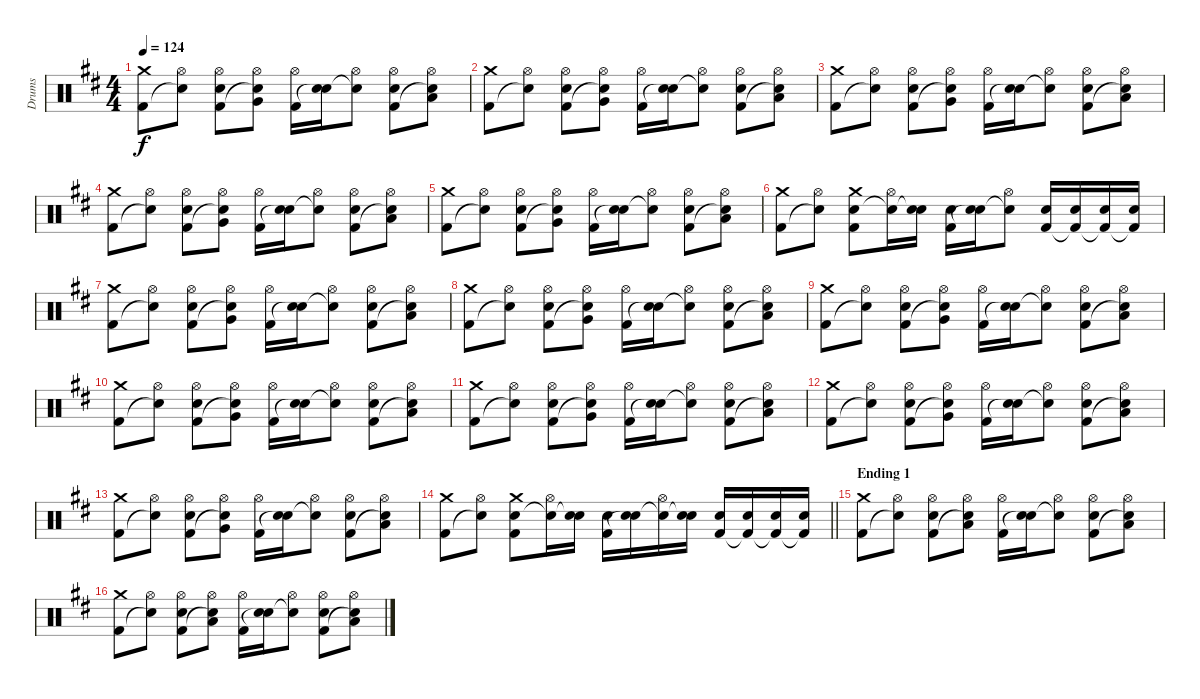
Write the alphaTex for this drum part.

\track ("Drums" "Drums") {instrument percussion}
\staff {score}
\articulation defaults
\ts (4 4)
\tempo 124
\clef neutral
\ks d
("Crash medium (hit)" "Kick (hit) 2").8{dy f} ("Hi-Hat (open)" "Snare (hit)"{t}).8 ("Hi-Hat (open)" "Electric Snare (hit)" "Kick (hit) 2").8 ("Hi-Hat (open)" "Very Low Tom (hit)" "Snare (hit)"{t}).8 ("Hi-Hat (open)" "Kick (hit) 2").16 ("Electric Snare (hit)" "Snare (hit)"{t}).16 ("Hi-Hat (open)" "Snare (hit)"{t}).8 ("Hi-Hat (open)" "Electric Snare (hit)" "Kick (hit) 2").8 ("Hi-Hat (open)" "Low Floor Tom (hit)" "Snare (hit)"{t}).8 |
("Crash medium (hit)" "Kick (hit) 2").8 ("Hi-Hat (open)" "Snare (hit)"{t}).8 ("Hi-Hat (open)" "Electric Snare (hit)" "Kick (hit) 2").8 ("Hi-Hat (open)" "Very Low Tom (hit)" "Snare (hit)"{t}).8 ("Hi-Hat (open)" "Kick (hit) 2").16 ("Electric Snare (hit)" "Snare (hit)"{t}).16 ("Hi-Hat (open)" "Snare (hit)"{t}).8 ("Hi-Hat (open)" "Electric Snare (hit)" "Kick (hit) 2").8 ("Hi-Hat (open)" "Low Floor Tom (hit)" "Snare (hit)"{t}).8 |
("Crash medium (hit)" "Kick (hit) 2").8 ("Hi-Hat (open)" "Snare (hit)"{t}).8 ("Hi-Hat (open)" "Electric Snare (hit)" "Kick (hit) 2").8 ("Hi-Hat (open)" "Very Low Tom (hit)" "Snare (hit)"{t}).8 ("Hi-Hat (open)" "Kick (hit) 2").16 ("Electric Snare (hit)" "Snare (hit)"{t}).16 ("Hi-Hat (open)" "Snare (hit)"{t}).8 ("Hi-Hat (open)" "Electric Snare (hit)" "Kick (hit) 2").8 ("Hi-Hat (open)" "Low Floor Tom (hit)" "Snare (hit)"{t}).8 |
("Crash medium (hit)" "Kick (hit) 2").8 ("Hi-Hat (open)" "Snare (hit)"{t}).8 ("Hi-Hat (open)" "Electric Snare (hit)" "Kick (hit) 2").8 ("Hi-Hat (open)" "Very Low Tom (hit)" "Snare (hit)"{t}).8 ("Hi-Hat (open)" "Kick (hit) 2").16 ("Electric Snare (hit)" "Snare (hit)"{t}).16 ("Hi-Hat (open)" "Snare (hit)"{t}).8 ("Hi-Hat (open)" "Electric Snare (hit)" "Kick (hit) 2").8 ("Hi-Hat (open)" "Low Floor Tom (hit)" "Snare (hit)"{t}).8 |
("Crash medium (hit)" "Kick (hit) 2").8 ("Hi-Hat (open)" "Snare (hit)"{t}).8 ("Hi-Hat (open)" "Electric Snare (hit)" "Kick (hit) 2").8 ("Hi-Hat (open)" "Very Low Tom (hit)" "Snare (hit)"{t}).8 ("Hi-Hat (open)" "Kick (hit) 2").16 ("Electric Snare (hit)" "Snare (hit)"{t}).16 ("Hi-Hat (open)" "Snare (hit)"{t}).8 ("Hi-Hat (open)" "Electric Snare (hit)" "Kick (hit) 2").8 ("Hi-Hat (open)" "Low Floor Tom (hit)" "Snare (hit)"{t}).8 |
("Crash medium (hit)" "Kick (hit) 2").8 ("Hi-Hat (open)" "Snare (hit)"{t}).8 ("Crash medium (hit)" "Electric Snare (hit)" "Kick (hit) 2").8 ("Hi-Hat (open)" "Snare (hit)"{t}).16 ("Electric Snare (hit)" "Snare (hit)"{t}).16 ("Electric Snare (hit)" "Kick (hit) 2").16 ("Electric Snare (hit)" "Snare (hit)"{t}).16 ("Hi-Hat (open)" "Snare (hit)"{t}).8 ("Electric Snare (hit)" "Kick (hit) 2").16 ("Electric Snare (hit)" "Kick (hit) 2"{t}).16 ("Electric Snare (hit)" "Kick (hit) 2"{t}).16 ("Electric Snare (hit)" "Kick (hit) 2"{t}).16 |
("Crash medium (hit)" "Kick (hit) 2").8 ("Hi-Hat (open)" "Snare (hit)"{t}).8 ("Hi-Hat (open)" "Electric Snare (hit)" "Kick (hit) 2").8 ("Hi-Hat (open)" "Very Low Tom (hit)" "Snare (hit)"{t}).8 ("Hi-Hat (open)" "Kick (hit) 2").16 ("Electric Snare (hit)" "Snare (hit)"{t}).16 ("Hi-Hat (open)" "Snare (hit)"{t}).8 ("Hi-Hat (open)" "Electric Snare (hit)" "Kick (hit) 2").8 ("Hi-Hat (open)" "Low Floor Tom (hit)" "Snare (hit)"{t}).8 |
("Crash medium (hit)" "Kick (hit) 2").8 ("Hi-Hat (open)" "Snare (hit)"{t}).8 ("Hi-Hat (open)" "Electric Snare (hit)" "Kick (hit) 2").8 ("Hi-Hat (open)" "Very Low Tom (hit)" "Snare (hit)"{t}).8 ("Hi-Hat (open)" "Kick (hit) 2").16 ("Electric Snare (hit)" "Snare (hit)"{t}).16 ("Hi-Hat (open)" "Snare (hit)"{t}).8 ("Hi-Hat (open)" "Electric Snare (hit)" "Kick (hit) 2").8 ("Hi-Hat (open)" "Low Floor Tom (hit)" "Snare (hit)"{t}).8 |
("Crash medium (hit)" "Kick (hit) 2").8 ("Hi-Hat (open)" "Snare (hit)"{t}).8 ("Hi-Hat (open)" "Electric Snare (hit)" "Kick (hit) 2").8 ("Hi-Hat (open)" "Very Low Tom (hit)" "Snare (hit)"{t}).8 ("Hi-Hat (open)" "Kick (hit) 2").16 ("Electric Snare (hit)" "Snare (hit)"{t}).16 ("Hi-Hat (open)" "Snare (hit)"{t}).8 ("Hi-Hat (open)" "Electric Snare (hit)" "Kick (hit) 2").8 ("Hi-Hat (open)" "Low Floor Tom (hit)" "Snare (hit)"{t}).8 |
("Crash medium (hit)" "Kick (hit) 2").8 ("Hi-Hat (open)" "Snare (hit)"{t}).8 ("Hi-Hat (open)" "Electric Snare (hit)" "Kick (hit) 2").8 ("Hi-Hat (open)" "Very Low Tom (hit)" "Snare (hit)"{t}).8 ("Hi-Hat (open)" "Kick (hit) 2").16 ("Electric Snare (hit)" "Snare (hit)"{t}).16 ("Hi-Hat (open)" "Snare (hit)"{t}).8 ("Hi-Hat (open)" "Electric Snare (hit)" "Kick (hit) 2").8 ("Hi-Hat (open)" "Low Floor Tom (hit)" "Snare (hit)"{t}).8 |
("Crash medium (hit)" "Kick (hit) 2").8 ("Hi-Hat (open)" "Snare (hit)"{t}).8 ("Hi-Hat (open)" "Electric Snare (hit)" "Kick (hit) 2").8 ("Hi-Hat (open)" "Very Low Tom (hit)" "Snare (hit)"{t}).8 ("Hi-Hat (open)" "Kick (hit) 2").16 ("Electric Snare (hit)" "Snare (hit)"{t}).16 ("Hi-Hat (open)" "Snare (hit)"{t}).8 ("Hi-Hat (open)" "Electric Snare (hit)" "Kick (hit) 2").8 ("Hi-Hat (open)" "Low Floor Tom (hit)" "Snare (hit)"{t}).8 |
("Crash medium (hit)" "Kick (hit) 2").8 ("Hi-Hat (open)" "Snare (hit)"{t}).8 ("Hi-Hat (open)" "Electric Snare (hit)" "Kick (hit) 2").8 ("Hi-Hat (open)" "Very Low Tom (hit)" "Snare (hit)"{t}).8 ("Hi-Hat (open)" "Kick (hit) 2").16 ("Electric Snare (hit)" "Snare (hit)"{t}).16 ("Hi-Hat (open)" "Snare (hit)"{t}).8 ("Hi-Hat (open)" "Electric Snare (hit)" "Kick (hit) 2").8 ("Hi-Hat (open)" "Low Floor Tom (hit)" "Snare (hit)"{t}).8 |
("Crash medium (hit)" "Kick (hit) 2").8 ("Hi-Hat (open)" "Snare (hit)"{t}).8 ("Hi-Hat (open)" "Electric Snare (hit)" "Kick (hit) 2").8 ("Hi-Hat (open)" "Very Low Tom (hit)" "Snare (hit)"{t}).8 ("Hi-Hat (open)" "Kick (hit) 2").16 ("Electric Snare (hit)" "Snare (hit)"{t}).16 ("Hi-Hat (open)" "Snare (hit)"{t}).8 ("Hi-Hat (open)" "Electric Snare (hit)" "Kick (hit) 2").8 ("Hi-Hat (open)" "Low Floor Tom (hit)" "Snare (hit)"{t}).8 |
\barLineRight lightlight
("Crash medium (hit)" "Kick (hit) 2").8 ("Hi-Hat (open)" "Snare (hit)"{t}).8 ("Crash medium (hit)" "Electric Snare (hit)" "Kick (hit) 2").8 ("Hi-Hat (open)" "Snare (hit)"{t}).16 ("Electric Snare (hit)" "Snare (hit)"{t}).16 ("Electric Snare (hit)" "Kick (hit) 2").16 ("Electric Snare (hit)" "Snare (hit)"{t}).16 ("Hi-Hat (open)" "Snare (hit)"{t}).16 ("Electric Snare (hit)" "Snare (hit)"{t}).16 ("Electric Snare (hit)" "Kick (hit) 2").16 ("Electric Snare (hit)" "Kick (hit) 2"{t}).16 ("Electric Snare (hit)" "Kick (hit) 2"{t}).16 ("Electric Snare (hit)" "Kick (hit) 2"{t}).16 |
\section ("" "Ending 1")
("Crash medium (hit)" "Kick (hit) 2").8 ("Hi-Hat (open)" "Snare (hit)"{t}).8 ("Hi-Hat (open)" "Electric Snare (hit)" "Kick (hit) 2").8 ("Hi-Hat (open)" "Low Tom (hit)" "Snare (hit)"{t}).8 ("Hi-Hat (open)" "Kick (hit) 2").16 ("Electric Snare (hit)" "Snare (hit)"{t}).16 ("Hi-Hat (open)" "Snare (hit)"{t}).8 ("Hi-Hat (open)" "Electric Snare (hit)" "Kick (hit) 2").8 ("Hi-Hat (open)" "Low Floor Tom (hit)" "Snare (hit)"{t}).8 |
("Crash medium (hit)" "Kick (hit) 2").8 ("Hi-Hat (open)" "Snare (hit)"{t}).8 ("Hi-Hat (open)" "Electric Snare (hit)" "Kick (hit) 2").8 ("Hi-Hat (open)" "Low Tom (hit)" "Snare (hit)"{t}).8 ("Hi-Hat (open)" "Kick (hit) 2").16 ("Electric Snare (hit)" "Snare (hit)"{t}).16 ("Hi-Hat (open)" "Snare (hit)"{t}).8 ("Hi-Hat (open)" "Electric Snare (hit)" "Kick (hit) 2").8 ("Hi-Hat (open)" "Low Floor Tom (hit)" "Snare (hit)"{t}).8
